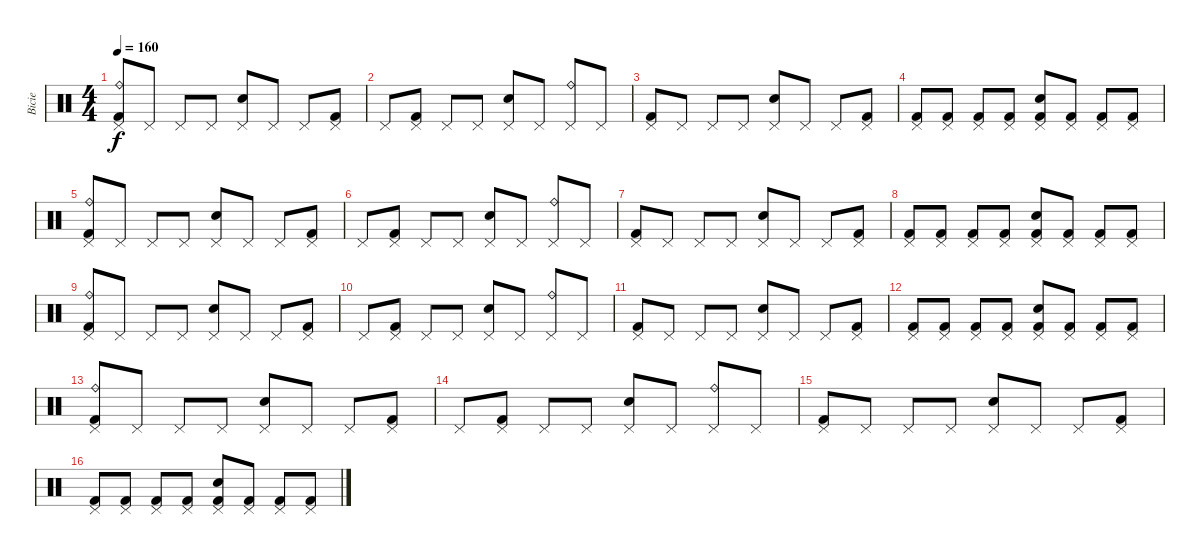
\track ("Bicie" "Bicie") {instrument percussion}
\staff {score}
\articulation defaults
\ts (4 4)
\tempo 160
\clef neutral
\ks c
("Ride (bell)" "Pedal Hi-Hat (hit)" "Kick (hit) 2").8{dy f} "Pedal Hi-Hat (hit)".8 "Pedal Hi-Hat (hit)".8 "Pedal Hi-Hat (hit)".8 ("Pedal Hi-Hat (hit)" "Hand Clap (hit)").8 "Pedal Hi-Hat (hit)".8 "Pedal Hi-Hat (hit)".8 ("Pedal Hi-Hat (hit)" "Kick (hit) 2").8 |
"Pedal Hi-Hat (hit)".8 ("Pedal Hi-Hat (hit)" "Kick (hit) 2").8 "Pedal Hi-Hat (hit)".8 "Pedal Hi-Hat (hit)".8 ("Pedal Hi-Hat (hit)" "Hand Clap (hit)").8 "Pedal Hi-Hat (hit)".8 ("Ride (bell)" "Pedal Hi-Hat (hit)").8 "Pedal Hi-Hat (hit)".8 |
("Pedal Hi-Hat (hit)" "Kick (hit) 2").8 "Pedal Hi-Hat (hit)".8 "Pedal Hi-Hat (hit)".8 "Pedal Hi-Hat (hit)".8 ("Pedal Hi-Hat (hit)" "Hand Clap (hit)").8 "Pedal Hi-Hat (hit)".8 "Pedal Hi-Hat (hit)".8 ("Pedal Hi-Hat (hit)" "Kick (hit) 2").8 |
("Pedal Hi-Hat (hit)" "Kick (hit) 2").8 ("Pedal Hi-Hat (hit)" "Kick (hit) 2").8 ("Pedal Hi-Hat (hit)" "Kick (hit) 2").8 ("Pedal Hi-Hat (hit)" "Kick (hit) 2").8 ("Pedal Hi-Hat (hit)" "Hand Clap (hit)" "Kick (hit) 2").8 ("Pedal Hi-Hat (hit)" "Kick (hit) 2").8 ("Pedal Hi-Hat (hit)" "Kick (hit) 2").8 ("Pedal Hi-Hat (hit)" "Kick (hit) 2").8 |
("Ride (bell)" "Pedal Hi-Hat (hit)" "Kick (hit) 2").8 "Pedal Hi-Hat (hit)".8 "Pedal Hi-Hat (hit)".8 "Pedal Hi-Hat (hit)".8 ("Pedal Hi-Hat (hit)" "Hand Clap (hit)").8 "Pedal Hi-Hat (hit)".8 "Pedal Hi-Hat (hit)".8 ("Pedal Hi-Hat (hit)" "Kick (hit) 2").8 |
"Pedal Hi-Hat (hit)".8 ("Pedal Hi-Hat (hit)" "Kick (hit) 2").8 "Pedal Hi-Hat (hit)".8 "Pedal Hi-Hat (hit)".8 ("Pedal Hi-Hat (hit)" "Hand Clap (hit)").8 "Pedal Hi-Hat (hit)".8 ("Ride (bell)" "Pedal Hi-Hat (hit)").8 "Pedal Hi-Hat (hit)".8 |
("Pedal Hi-Hat (hit)" "Kick (hit) 2").8 "Pedal Hi-Hat (hit)".8 "Pedal Hi-Hat (hit)".8 "Pedal Hi-Hat (hit)".8 ("Pedal Hi-Hat (hit)" "Hand Clap (hit)").8 "Pedal Hi-Hat (hit)".8 "Pedal Hi-Hat (hit)".8 ("Pedal Hi-Hat (hit)" "Kick (hit) 2").8 |
("Pedal Hi-Hat (hit)" "Kick (hit) 2").8 ("Pedal Hi-Hat (hit)" "Kick (hit) 2").8 ("Pedal Hi-Hat (hit)" "Kick (hit) 2").8 ("Pedal Hi-Hat (hit)" "Kick (hit) 2").8 ("Pedal Hi-Hat (hit)" "Hand Clap (hit)" "Kick (hit) 2").8 ("Pedal Hi-Hat (hit)" "Kick (hit) 2").8 ("Pedal Hi-Hat (hit)" "Kick (hit) 2").8 ("Pedal Hi-Hat (hit)" "Kick (hit) 2").8 |
("Ride (bell)" "Pedal Hi-Hat (hit)" "Kick (hit) 2").8 "Pedal Hi-Hat (hit)".8 "Pedal Hi-Hat (hit)".8 "Pedal Hi-Hat (hit)".8 ("Pedal Hi-Hat (hit)" "Hand Clap (hit)").8 "Pedal Hi-Hat (hit)".8 "Pedal Hi-Hat (hit)".8 ("Pedal Hi-Hat (hit)" "Kick (hit) 2").8 |
"Pedal Hi-Hat (hit)".8 ("Pedal Hi-Hat (hit)" "Kick (hit) 2").8 "Pedal Hi-Hat (hit)".8 "Pedal Hi-Hat (hit)".8 ("Pedal Hi-Hat (hit)" "Hand Clap (hit)").8 "Pedal Hi-Hat (hit)".8 ("Ride (bell)" "Pedal Hi-Hat (hit)").8 "Pedal Hi-Hat (hit)".8 |
("Pedal Hi-Hat (hit)" "Kick (hit) 2").8 "Pedal Hi-Hat (hit)".8 "Pedal Hi-Hat (hit)".8 "Pedal Hi-Hat (hit)".8 ("Pedal Hi-Hat (hit)" "Hand Clap (hit)").8 "Pedal Hi-Hat (hit)".8 "Pedal Hi-Hat (hit)".8 ("Pedal Hi-Hat (hit)" "Kick (hit) 2").8 |
("Pedal Hi-Hat (hit)" "Kick (hit) 2").8 ("Pedal Hi-Hat (hit)" "Kick (hit) 2").8 ("Pedal Hi-Hat (hit)" "Kick (hit) 2").8 ("Pedal Hi-Hat (hit)" "Kick (hit) 2").8 ("Pedal Hi-Hat (hit)" "Hand Clap (hit)" "Kick (hit) 2").8 ("Pedal Hi-Hat (hit)" "Kick (hit) 2").8 ("Pedal Hi-Hat (hit)" "Kick (hit) 2").8 ("Pedal Hi-Hat (hit)" "Kick (hit) 2").8 |
("Ride (bell)" "Pedal Hi-Hat (hit)" "Kick (hit) 2").8 "Pedal Hi-Hat (hit)".8 "Pedal Hi-Hat (hit)".8 "Pedal Hi-Hat (hit)".8 ("Pedal Hi-Hat (hit)" "Hand Clap (hit)").8 "Pedal Hi-Hat (hit)".8 "Pedal Hi-Hat (hit)".8 ("Pedal Hi-Hat (hit)" "Kick (hit) 2").8 |
"Pedal Hi-Hat (hit)".8 ("Pedal Hi-Hat (hit)" "Kick (hit) 2").8 "Pedal Hi-Hat (hit)".8 "Pedal Hi-Hat (hit)".8 ("Pedal Hi-Hat (hit)" "Hand Clap (hit)").8 "Pedal Hi-Hat (hit)".8 ("Ride (bell)" "Pedal Hi-Hat (hit)").8 "Pedal Hi-Hat (hit)".8 |
("Pedal Hi-Hat (hit)" "Kick (hit) 2").8 "Pedal Hi-Hat (hit)".8 "Pedal Hi-Hat (hit)".8 "Pedal Hi-Hat (hit)".8 ("Pedal Hi-Hat (hit)" "Hand Clap (hit)").8 "Pedal Hi-Hat (hit)".8 "Pedal Hi-Hat (hit)".8 ("Pedal Hi-Hat (hit)" "Kick (hit) 2").8 |
("Pedal Hi-Hat (hit)" "Kick (hit) 2").8 ("Pedal Hi-Hat (hit)" "Kick (hit) 2").8 ("Pedal Hi-Hat (hit)" "Kick (hit) 2").8 ("Pedal Hi-Hat (hit)" "Kick (hit) 2").8 ("Pedal Hi-Hat (hit)" "Hand Clap (hit)" "Kick (hit) 2").8 ("Pedal Hi-Hat (hit)" "Kick (hit) 2").8 ("Pedal Hi-Hat (hit)" "Kick (hit) 2").8 ("Pedal Hi-Hat (hit)" "Kick (hit) 2").8
